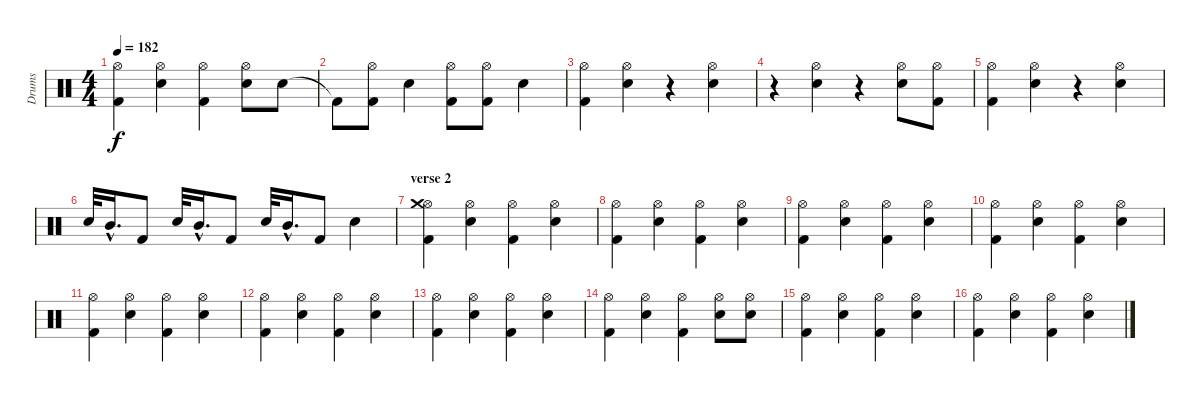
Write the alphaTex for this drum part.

\track ("Drums" "Drums") {instrument percussion}
\staff {score}
\articulation defaults
\ts (4 4)
\tempo 182
\clef neutral
\ks c
("Kick (hit) 2" "Hi-Hat (open)").4{dy f} ("Snare (hit) 2" "Hi-Hat (open)").4 ("Kick (hit) 2" "Hi-Hat (open)").4 ("Snare (hit) 2" "Hi-Hat (open)").8 "Snare (hit) 2".8 |
"Kick (hit) 2"{t}.8 ("Kick (hit) 2" "Hi-Hat (open)").8 "Snare (hit) 2".4 ("Kick (hit) 2" "Hi-Hat (open)").8 ("Kick (hit) 2" "Hi-Hat (open)").8 "Snare (hit) 2".4 |
("Hi-Hat (open)" "Kick (hit) 2").4 ("Snare (hit) 2" "Hi-Hat (open)").4 r.4 ("Snare (hit) 2" "Hi-Hat (open)").4 |
r.4 ("Snare (hit) 2" "Hi-Hat (open)").4 r.4 ("Snare (hit) 2" "Hi-Hat (open)").8 ("Kick (hit) 2" "Hi-Hat (open)").8 |
("Kick (hit) 2" "Hi-Hat (open)").4 ("Snare (hit) 2" "Hi-Hat (open)").4 r.4 ("Snare (hit) 2" "Hi-Hat (open)").4 |
"Snare (hit) 2".32 "Mid Tom (hit)"{hac}.16{d} "Kick (hit) 2".8 "Snare (hit) 2".32 "Mid Tom (hit)"{hac}.16{d} "Kick (hit) 2".8 "Snare (hit) 2".32 "Mid Tom (hit)"{hac}.16{d} "Kick (hit) 2".8 "Snare (hit) 2".4 |
\section ("" "verse 2")
("Kick (hit) 2" "Hi-Hat (open)" "Crash medium (hit)").4 ("Snare (hit) 2" "Hi-Hat (open)").4 ("Kick (hit) 2" "Hi-Hat (open)").4 ("Snare (hit) 2" "Hi-Hat (open)").4 |
("Kick (hit) 2" "Hi-Hat (open)").4 ("Snare (hit) 2" "Hi-Hat (open)").4 ("Kick (hit) 2" "Hi-Hat (open)").4 ("Snare (hit) 2" "Hi-Hat (open)").4 |
("Kick (hit) 2" "Hi-Hat (open)").4 ("Snare (hit) 2" "Hi-Hat (open)").4 ("Kick (hit) 2" "Hi-Hat (open)").4 ("Snare (hit) 2" "Hi-Hat (open)").4 |
("Kick (hit) 2" "Hi-Hat (open)").4 ("Snare (hit) 2" "Hi-Hat (open)").4 ("Kick (hit) 2" "Hi-Hat (open)").4 ("Snare (hit) 2" "Hi-Hat (open)").4 |
("Kick (hit) 2" "Hi-Hat (open)").4 ("Snare (hit) 2" "Hi-Hat (open)").4 ("Kick (hit) 2" "Hi-Hat (open)").4 ("Snare (hit) 2" "Hi-Hat (open)").4 |
("Kick (hit) 2" "Hi-Hat (open)").4 ("Snare (hit) 2" "Hi-Hat (open)").4 ("Kick (hit) 2" "Hi-Hat (open)").4 ("Snare (hit) 2" "Hi-Hat (open)").4 |
("Kick (hit) 2" "Hi-Hat (open)").4 ("Snare (hit) 2" "Hi-Hat (open)").4 ("Kick (hit) 2" "Hi-Hat (open)").4 ("Snare (hit) 2" "Hi-Hat (open)").4 |
("Kick (hit) 2" "Hi-Hat (open)").4 ("Snare (hit) 2" "Hi-Hat (open)").4 ("Kick (hit) 2" "Hi-Hat (open)").4 ("Snare (hit) 2" "Hi-Hat (open)").8 ("Snare (hit) 2" "Hi-Hat (open)").8 |
("Kick (hit) 2" "Hi-Hat (open)").4 ("Snare (hit) 2" "Hi-Hat (open)").4 ("Kick (hit) 2" "Hi-Hat (open)").4 ("Snare (hit) 2" "Hi-Hat (open)").4 |
("Kick (hit) 2" "Hi-Hat (open)").4 ("Snare (hit) 2" "Hi-Hat (open)").4 ("Kick (hit) 2" "Hi-Hat (open)").4 ("Snare (hit) 2" "Hi-Hat (open)").4
